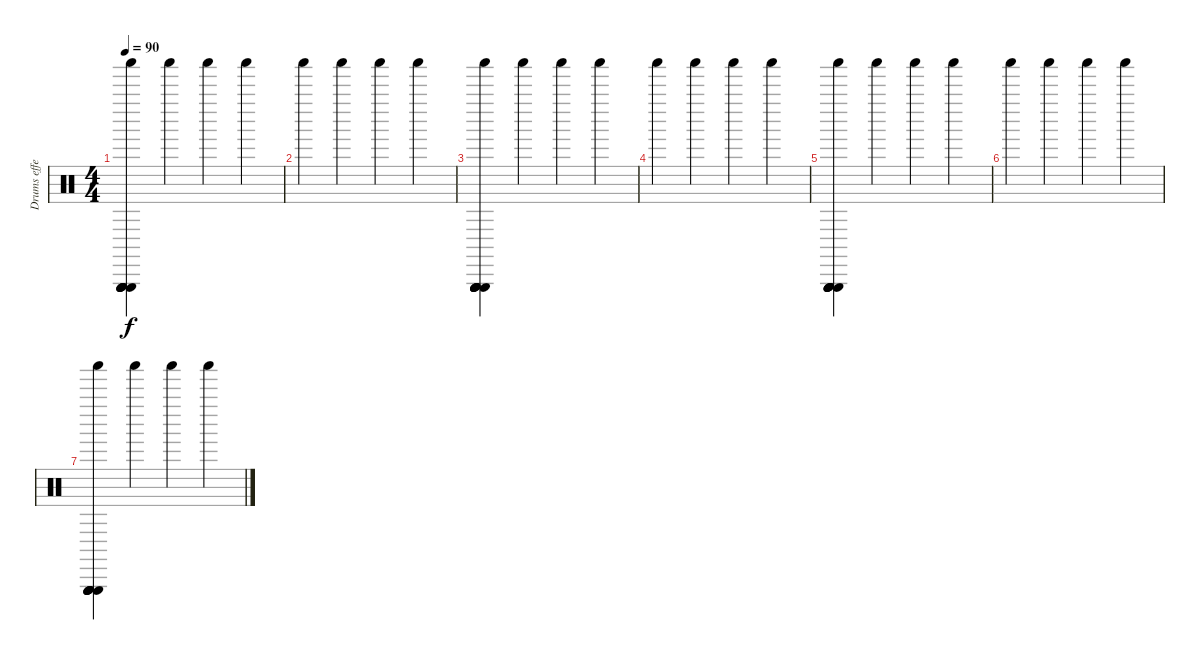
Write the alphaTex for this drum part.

\track ("Drums effect" "Drums effe") {instrument percussion}
\staff {score}
\articulation defaults
\ts (4 4)
\tempo 90
\clef neutral
\ks c
("Shaker (hit)" "Triangle (hit)" "Triangle (hit)" "Triangle (hit)" "Triangle (hit)" "Triangle (hit)").4{dy f} "Shaker (hit)".4 "Shaker (hit)".4 "Shaker (hit)".4 |
"Shaker (hit)".4 "Shaker (hit)".4 "Shaker (hit)".4 "Shaker (hit)".4 |
("Shaker (hit)" "Triangle (hit)" "Triangle (hit)" "Triangle (hit)" "Triangle (hit)" "Triangle (hit)").4 "Shaker (hit)".4 "Shaker (hit)".4 "Shaker (hit)".4 |
"Shaker (hit)".4 "Shaker (hit)".4 "Shaker (hit)".4 "Shaker (hit)".4 |
("Shaker (hit)" "Triangle (hit)" "Triangle (hit)" "Triangle (hit)" "Triangle (hit)" "Triangle (hit)").4 "Shaker (hit)".4 "Shaker (hit)".4 "Shaker (hit)".4 |
"Shaker (hit)".4 "Shaker (hit)".4 "Shaker (hit)".4 "Shaker (hit)".4 |
("Shaker (hit)" "Triangle (hit)" "Triangle (hit)" "Triangle (hit)" "Triangle (hit)" "Triangle (hit)").4 "Shaker (hit)".4 "Shaker (hit)".4 "Shaker (hit)".4
